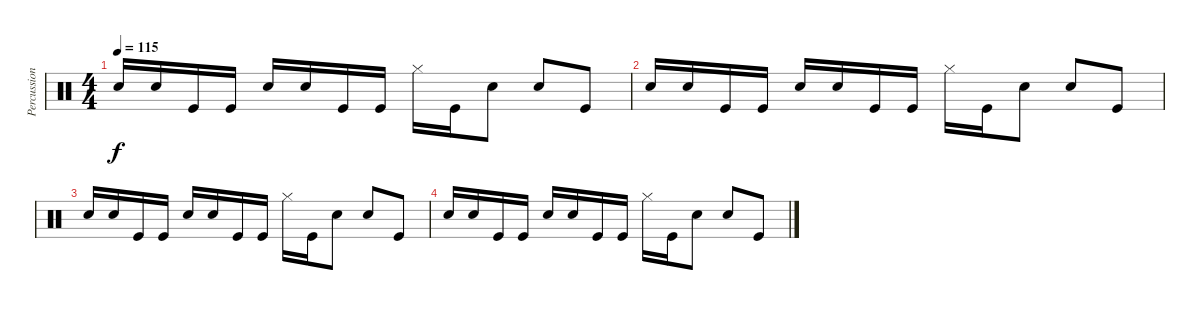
\track ("Percussions" "Percussion") {instrument percussion}
\staff {score}
\articulation defaults
\ts (4 4)
\tempo 115
\clef neutral
\ks c "Electric Snare (hit)".16{dy f} "Electric Snare (hit)".16 "Kick (hit)".16 "Kick (hit)".16 "Electric Snare (hit)".16 "Electric Snare (hit)".16 "Kick (hit)".16 "Kick (hit)".16 "Hi-Hat (closed)".16 "Kick (hit)".16 "Electric Snare (hit)".8 "Electric Snare (hit)".8 "Kick (hit)".8
|
"Electric Snare (hit)".16 "Electric Snare (hit)".16 "Kick (hit)".16 "Kick (hit)".16 "Electric Snare (hit)".16 "Electric Snare (hit)".16 "Kick (hit)".16 "Kick (hit)".16 "Hi-Hat (closed)".16 "Kick (hit)".16 "Electric Snare (hit)".8 "Electric Snare (hit)".8 "Kick (hit)".8 |
"Electric Snare (hit)".16 "Electric Snare (hit)".16 "Kick (hit)".16 "Kick (hit)".16 "Electric Snare (hit)".16 "Electric Snare (hit)".16 "Kick (hit)".16 "Kick (hit)".16 "Hi-Hat (closed)".16 "Kick (hit)".16 "Electric Snare (hit)".8 "Electric Snare (hit)".8 "Kick (hit)".8 |
"Electric Snare (hit)".16 "Electric Snare (hit)".16 "Kick (hit)".16 "Kick (hit)".16 "Electric Snare (hit)".16 "Electric Snare (hit)".16 "Kick (hit)".16 "Kick (hit)".16 "Hi-Hat (closed)".16 "Kick (hit)".16 "Electric Snare (hit)".8 "Electric Snare (hit)".8 "Kick (hit)".8
